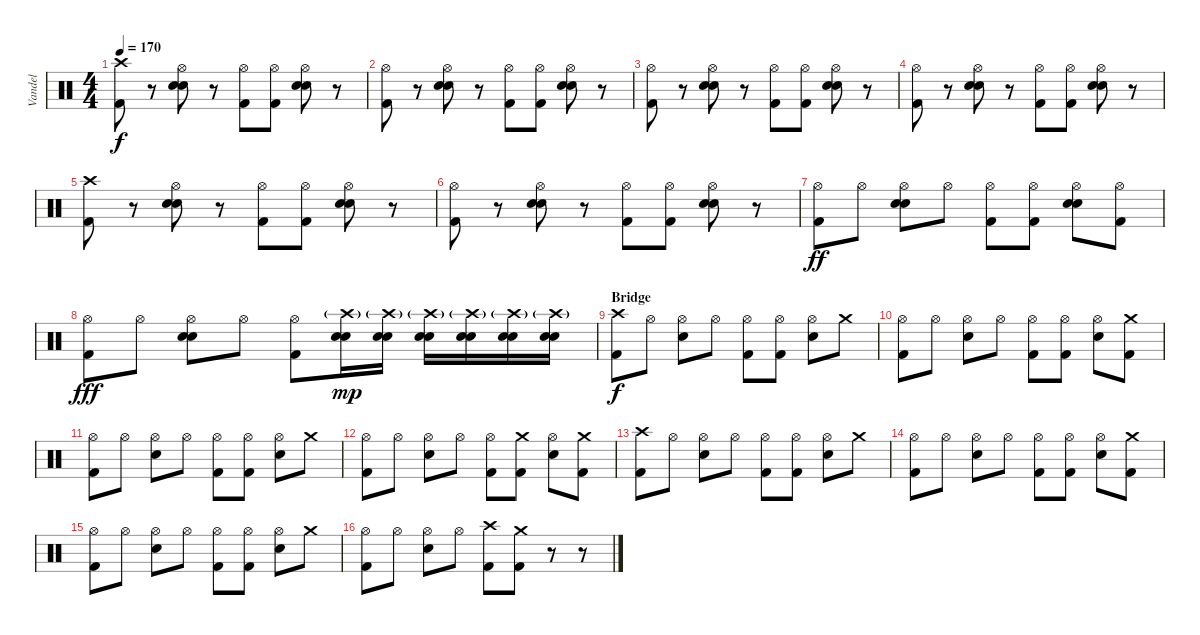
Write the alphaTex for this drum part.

\track ("Vandel" "Vandel") {instrument percussion}
\staff {score}
\articulation defaults
\ts (4 4)
\tempo 170
\clef neutral
\ks c
("Crash high (hit)" "Kick (hit) 2").8{dy f} r.8 ("Hi-Hat (open)" "Electric Snare (hit)" "Electric Snare (hit)").8 r.8 ("Hi-Hat (open)" "Kick (hit) 2").8 ("Hi-Hat (open)" "Kick (hit) 2").8 ("Hi-Hat (open)" "Electric Snare (hit)" "Electric Snare (hit)").8 r.8 |
("Hi-Hat (open)" "Kick (hit) 2").8 r.8 ("Hi-Hat (open)" "Electric Snare (hit)" "Electric Snare (hit)").8 r.8 ("Hi-Hat (open)" "Kick (hit) 2").8 ("Hi-Hat (open)" "Kick (hit) 2").8 ("Hi-Hat (open)" "Electric Snare (hit)" "Electric Snare (hit)").8 r.8 |
("Hi-Hat (open)" "Kick (hit) 2").8 r.8 ("Hi-Hat (open)" "Electric Snare (hit)" "Electric Snare (hit)").8 r.8 ("Hi-Hat (open)" "Kick (hit) 2").8 ("Hi-Hat (open)" "Kick (hit) 2").8 ("Hi-Hat (open)" "Electric Snare (hit)" "Electric Snare (hit)").8 r.8 |
("Hi-Hat (open)" "Kick (hit) 2").8 r.8 ("Hi-Hat (open)" "Electric Snare (hit)" "Electric Snare (hit)").8 r.8 ("Hi-Hat (open)" "Kick (hit) 2").8 ("Hi-Hat (open)" "Kick (hit) 2").8 ("Hi-Hat (open)" "Electric Snare (hit)" "Electric Snare (hit)").8 r.8 |
("Crash high (hit)" "Kick (hit) 2").8 r.8 ("Hi-Hat (open)" "Electric Snare (hit)" "Electric Snare (hit)").8 r.8 ("Hi-Hat (open)" "Kick (hit) 2").8 ("Hi-Hat (open)" "Kick (hit) 2").8 ("Hi-Hat (open)" "Electric Snare (hit)" "Electric Snare (hit)").8 r.8 |
("Hi-Hat (open)" "Kick (hit) 2").8 r.8 ("Hi-Hat (open)" "Electric Snare (hit)" "Electric Snare (hit)").8 r.8 ("Hi-Hat (open)" "Kick (hit) 2").8 ("Hi-Hat (open)" "Kick (hit) 2").8 ("Hi-Hat (open)" "Electric Snare (hit)" "Electric Snare (hit)").8 r.8 |
("Hi-Hat (open)" "Kick (hit) 2").8{dy ff} "Hi-Hat (open)".8 ("Hi-Hat (open)" "Electric Snare (hit)" "Electric Snare (hit)").8 "Hi-Hat (open)".8 ("Hi-Hat (open)" "Kick (hit) 2").8 ("Hi-Hat (open)" "Kick (hit) 2").8 ("Hi-Hat (open)" "Electric Snare (hit)" "Electric Snare (hit)").8 ("Hi-Hat (open)" "Kick (hit) 2").8 |
("Hi-Hat (open)" "Kick (hit) 2").8{dy fff} "Hi-Hat (open)".8 ("Hi-Hat (open)" "Electric Snare (hit)" "Electric Snare (hit)").8 "Hi-Hat (open)".8 ("Hi-Hat (open)" "Kick (hit) 2").8 ("Crash high (hit)"{g} "Electric Snare (hit)" "Electric Snare (hit)").16{dy mp} ("Crash high (hit)"{g} "Electric Snare (hit)" "Electric Snare (hit)").16 ("Crash high (hit)"{g} "Electric Snare (hit)" "Electric Snare (hit)").16 ("Crash high (hit)"{g} "Electric Snare (hit)" "Electric Snare (hit)").16 ("Crash high (hit)"{g} "Electric Snare (hit)" "Electric Snare (hit)").16 ("Crash high (hit)"{g} "Electric Snare (hit)" "Electric Snare (hit)").16 |
\section ("" "Bridge")
("Crash high (hit)" "Kick (hit) 2").8{dy f} "Hi-Hat (open)".8 ("Hi-Hat (open)" "Electric Snare (hit)").8 "Hi-Hat (open)".8 ("Hi-Hat (open)" "Kick (hit) 2").8 ("Hi-Hat (open)" "Kick (hit) 2").8 ("Hi-Hat (open)" "Electric Snare (hit)").8 "Crash medium (hit)".8 |
("Hi-Hat (open)" "Kick (hit) 2").8 "Hi-Hat (open)".8 ("Hi-Hat (open)" "Electric Snare (hit)").8 "Hi-Hat (open)".8 ("Hi-Hat (open)" "Kick (hit) 2").8 ("Hi-Hat (open)" "Kick (hit) 2").8 ("Hi-Hat (open)" "Electric Snare (hit)").8 ("Crash medium (hit)" "Kick (hit) 2").8 |
("Hi-Hat (open)" "Kick (hit) 2").8 "Hi-Hat (open)".8 ("Hi-Hat (open)" "Electric Snare (hit)").8 "Hi-Hat (open)".8 ("Hi-Hat (open)" "Kick (hit) 2").8 ("Hi-Hat (open)" "Kick (hit) 2").8 ("Hi-Hat (open)" "Electric Snare (hit)").8 "Crash medium (hit)".8 |
("Hi-Hat (open)" "Kick (hit) 2").8 "Hi-Hat (open)".8 ("Hi-Hat (open)" "Electric Snare (hit)").8 "Hi-Hat (open)".8 ("Hi-Hat (open)" "Kick (hit) 2").8 ("Crash medium (hit)" "Kick (hit) 2").8 ("Hi-Hat (open)" "Electric Snare (hit)").8 ("Crash medium (hit)" "Kick (hit) 2").8 |
("Crash high (hit)" "Kick (hit) 2").8 "Hi-Hat (open)".8 ("Hi-Hat (open)" "Electric Snare (hit)").8 "Hi-Hat (open)".8 ("Hi-Hat (open)" "Kick (hit) 2").8 ("Hi-Hat (open)" "Kick (hit) 2").8 ("Hi-Hat (open)" "Electric Snare (hit)").8 "Crash medium (hit)".8 |
("Hi-Hat (open)" "Kick (hit) 2").8 "Hi-Hat (open)".8 ("Hi-Hat (open)" "Electric Snare (hit)").8 "Hi-Hat (open)".8 ("Hi-Hat (open)" "Kick (hit) 2").8 ("Hi-Hat (open)" "Kick (hit) 2").8 ("Hi-Hat (open)" "Electric Snare (hit)").8 ("Crash medium (hit)" "Kick (hit) 2").8 |
("Hi-Hat (open)" "Kick (hit) 2").8 "Hi-Hat (open)".8 ("Hi-Hat (open)" "Electric Snare (hit)").8 "Hi-Hat (open)".8 ("Hi-Hat (open)" "Kick (hit) 2").8 ("Hi-Hat (open)" "Kick (hit) 2").8 ("Hi-Hat (open)" "Electric Snare (hit)").8 "Crash medium (hit)".8 |
("Hi-Hat (open)" "Kick (hit) 2").8 "Hi-Hat (open)".8 ("Hi-Hat (open)" "Electric Snare (hit)").8 "Hi-Hat (open)".8 ("Crash high (hit)" "Kick (hit) 2").8 ("Crash medium (hit)" "Kick (hit) 2").8 r.8 r.8
